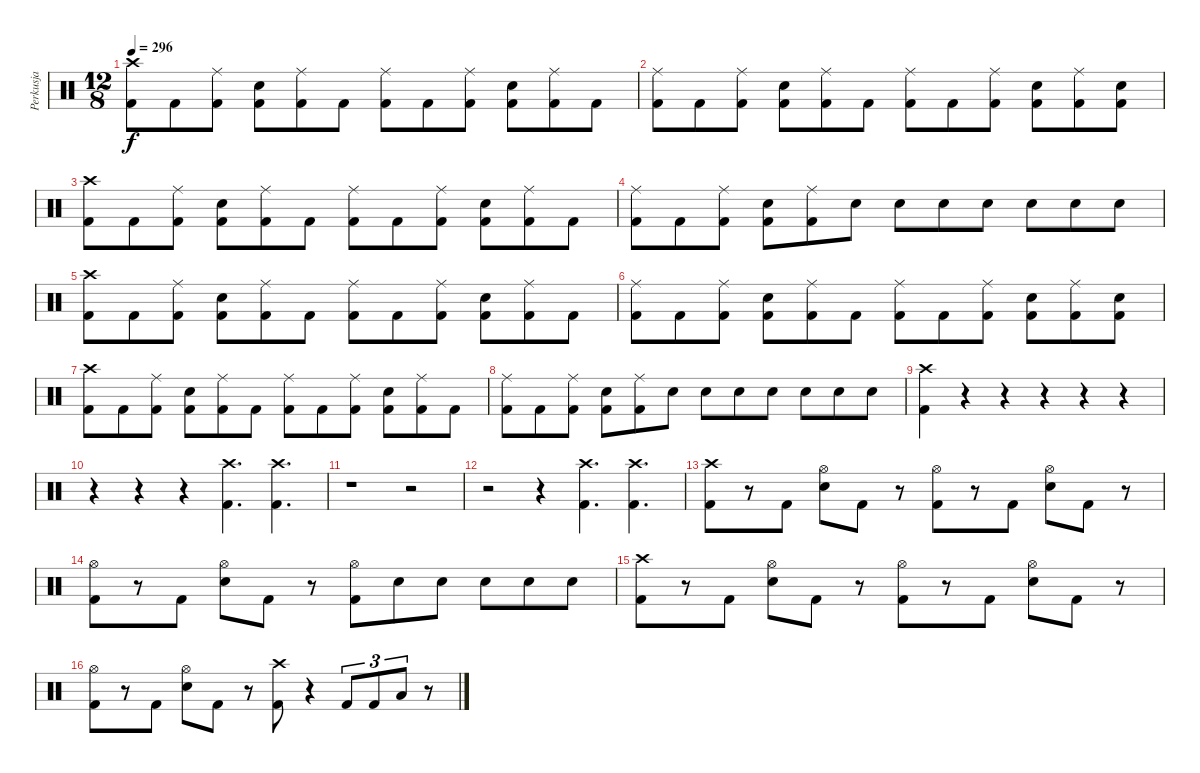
\track ("Perkusja" "Perkusja") {instrument percussion bank 10}
\staff {score}
\articulation defaults
\ts (12 8)
\tempo 296
\clef neutral
\ks c
("Crash high (hit)" "Kick (hit) 2").8{dy f} "Kick (hit) 2".8 ("Ride (middle)" "Kick (hit) 2").8 ("Snare (hit) 2" "Kick (hit) 2").8 ("Ride (middle)" "Kick (hit) 2").8 "Kick (hit) 2".8 ("Ride (middle)" "Kick (hit) 2").8 "Kick (hit) 2".8 ("Ride (middle)" "Kick (hit) 2").8 ("Snare (hit) 2" "Kick (hit) 2").8 ("Ride (middle)" "Kick (hit) 2").8 "Kick (hit) 2".8 |
("Ride (middle)" "Kick (hit) 2").8 "Kick (hit) 2".8 ("Ride (middle)" "Kick (hit) 2").8 ("Snare (hit) 2" "Kick (hit) 2").8 ("Ride (middle)" "Kick (hit) 2").8 "Kick (hit) 2".8 ("Ride (middle)" "Kick (hit) 2").8 "Kick (hit) 2".8 ("Ride (middle)" "Kick (hit) 2").8 ("Snare (hit) 2" "Kick (hit) 2").8 ("Ride (middle)" "Kick (hit) 2").8 ("Snare (hit) 2" "Kick (hit) 2").8 |
("Crash high (hit)" "Kick (hit) 2").8 "Kick (hit) 2".8 ("Ride (middle)" "Kick (hit) 2").8 ("Snare (hit) 2" "Kick (hit) 2").8 ("Ride (middle)" "Kick (hit) 2").8 "Kick (hit) 2".8 ("Ride (middle)" "Kick (hit) 2").8 "Kick (hit) 2".8 ("Ride (middle)" "Kick (hit) 2").8 ("Snare (hit) 2" "Kick (hit) 2").8 ("Ride (middle)" "Kick (hit) 2").8 "Kick (hit) 2".8 |
("Ride (middle)" "Kick (hit) 2").8 "Kick (hit) 2".8 ("Ride (middle)" "Kick (hit) 2").8 ("Snare (hit) 2" "Kick (hit) 2").8 ("Ride (middle)" "Kick (hit) 2").8 "Snare (hit) 2".8 "Snare (hit) 2".8 "Snare (hit) 2".8 "Snare (hit) 2".8 "Snare (hit) 2".8 "Snare (hit) 2".8 "Snare (hit) 2".8 |
("Crash high (hit)" "Kick (hit) 2").8 "Kick (hit) 2".8 ("Ride (middle)" "Kick (hit) 2").8 ("Snare (hit) 2" "Kick (hit) 2").8 ("Ride (middle)" "Kick (hit) 2").8 "Kick (hit) 2".8 ("Ride (middle)" "Kick (hit) 2").8 "Kick (hit) 2".8 ("Ride (middle)" "Kick (hit) 2").8 ("Snare (hit) 2" "Kick (hit) 2").8 ("Ride (middle)" "Kick (hit) 2").8 "Kick (hit) 2".8 |
("Ride (middle)" "Kick (hit) 2").8 "Kick (hit) 2".8 ("Ride (middle)" "Kick (hit) 2").8 ("Snare (hit) 2" "Kick (hit) 2").8 ("Ride (middle)" "Kick (hit) 2").8 "Kick (hit) 2".8 ("Ride (middle)" "Kick (hit) 2").8 "Kick (hit) 2".8 ("Ride (middle)" "Kick (hit) 2").8 ("Snare (hit) 2" "Kick (hit) 2").8 ("Ride (middle)" "Kick (hit) 2").8 ("Snare (hit) 2" "Kick (hit) 2").8 |
("Crash high (hit)" "Kick (hit) 2").8 "Kick (hit) 2".8 ("Ride (middle)" "Kick (hit) 2").8 ("Snare (hit) 2" "Kick (hit) 2").8 ("Ride (middle)" "Kick (hit) 2").8 "Kick (hit) 2".8 ("Ride (middle)" "Kick (hit) 2").8 "Kick (hit) 2".8 ("Ride (middle)" "Kick (hit) 2").8 ("Snare (hit) 2" "Kick (hit) 2").8 ("Ride (middle)" "Kick (hit) 2").8 "Kick (hit) 2".8 |
("Ride (middle)" "Kick (hit) 2").8 "Kick (hit) 2".8 ("Ride (middle)" "Kick (hit) 2").8 ("Snare (hit) 2" "Kick (hit) 2").8 ("Ride (middle)" "Kick (hit) 2").8 "Snare (hit) 2".8 "Snare (hit) 2".8 "Snare (hit) 2".8 "Snare (hit) 2".8 "Snare (hit) 2".8 "Snare (hit) 2".8 "Snare (hit) 2".8 |
("Crash high (hit)" "Kick (hit) 2").4 r.4 r.4 r.4 r.4 r.4 |
r.4 r.4 r.4 ("Crash high (hit)" "Kick (hit) 2").4{d} ("Crash high (hit)" "Kick (hit) 2").4{d} |
r.1 r.2 |
r.2 r.4 ("Crash high (hit)" "Kick (hit) 2").4{d} ("Crash high (hit)" "Kick (hit) 2").4{d} |
("Crash high (hit)" "Kick (hit) 2").8 r.8 "Kick (hit) 2".8 ("Hi-Hat (open)" "Snare (hit) 2").8 "Kick (hit) 2".8 r.8 ("Hi-Hat (open)" "Kick (hit) 2").8 r.8 "Kick (hit) 2".8 ("Hi-Hat (open)" "Snare (hit) 2").8 "Kick (hit) 2".8 r.8 |
("Hi-Hat (open)" "Kick (hit) 2").8 r.8 "Kick (hit) 2".8 ("Hi-Hat (open)" "Snare (hit) 2").8 "Kick (hit) 2".8 r.8 ("Hi-Hat (open)" "Kick (hit) 2").8 "Snare (hit) 2".8 "Snare (hit) 2".8 "Snare (hit) 2".8 "Snare (hit) 2".8 "Snare (hit) 2".8 |
("Crash high (hit)" "Kick (hit) 2").8 r.8 "Kick (hit) 2".8 ("Hi-Hat (open)" "Snare (hit) 2").8 "Kick (hit) 2".8 r.8 ("Hi-Hat (open)" "Kick (hit) 2").8 r.8 "Kick (hit) 2".8 ("Hi-Hat (open)" "Snare (hit) 2").8 "Kick (hit) 2".8 r.8 |
("Hi-Hat (open)" "Kick (hit) 2").8 r.8 "Kick (hit) 2".8 ("Hi-Hat (open)" "Snare (hit) 2").8 "Kick (hit) 2".8 r.8 ("Crash high (hit)" "Kick (hit) 2").8 r.4 "Kick (hit) 2".8{tu (3 2)} "Kick (hit) 2".8{tu (3 2)} "Low Floor Tom (hit)".8{tu (3 2)} r.8
